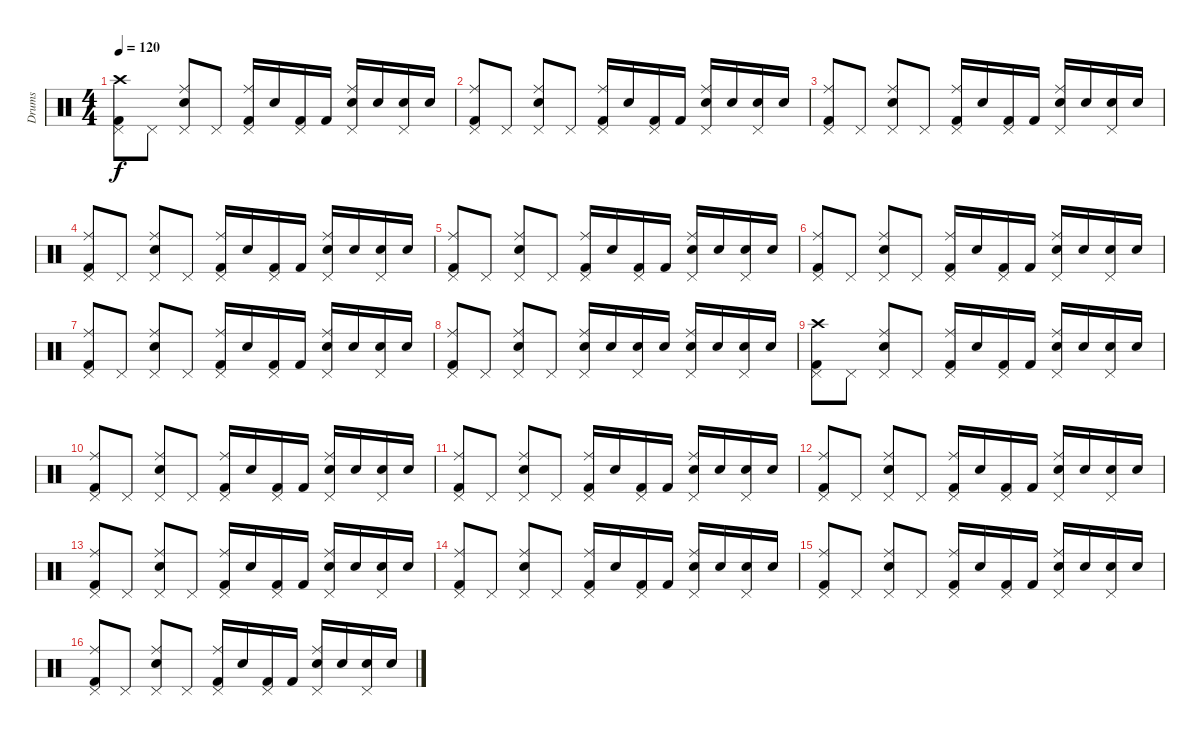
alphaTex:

\track ("Drums" "Drums") {instrument percussion}
\staff {score}
\articulation defaults
\ts (4 4)
\tempo 120
\clef neutral
\ks c
("Crash high (hit)" "Kick (hit) 2" "Pedal Hi-Hat (hit)").8{dy f} "Pedal Hi-Hat (hit)".8 ("Ride (middle)" "Electric Snare (hit)" "Pedal Hi-Hat (hit)").8 "Pedal Hi-Hat (hit)".8 ("Ride (middle)" "Kick (hit) 2" "Pedal Hi-Hat (hit)").16 "Electric Snare (hit)".16 ("Kick (hit) 2" "Pedal Hi-Hat (hit)").16 "Kick (hit) 2".16 ("Ride (middle)" "Electric Snare (hit)" "Pedal Hi-Hat (hit)").16 "Electric Snare (hit)".16 ("Electric Snare (hit)" "Pedal Hi-Hat (hit)").16 "Electric Snare (hit)".16 |
("Ride (middle)" "Kick (hit) 2" "Pedal Hi-Hat (hit)").8 "Pedal Hi-Hat (hit)".8 ("Ride (middle)" "Electric Snare (hit)" "Pedal Hi-Hat (hit)").8 "Pedal Hi-Hat (hit)".8 ("Ride (middle)" "Kick (hit) 2" "Pedal Hi-Hat (hit)").16 "Electric Snare (hit)".16 ("Kick (hit) 2" "Pedal Hi-Hat (hit)").16 "Kick (hit) 2".16 ("Ride (middle)" "Electric Snare (hit)" "Pedal Hi-Hat (hit)").16 "Electric Snare (hit)".16 ("Electric Snare (hit)" "Pedal Hi-Hat (hit)").16 "Electric Snare (hit)".16 |
("Ride (middle)" "Kick (hit) 2" "Pedal Hi-Hat (hit)").8 "Pedal Hi-Hat (hit)".8 ("Ride (middle)" "Electric Snare (hit)" "Pedal Hi-Hat (hit)").8 "Pedal Hi-Hat (hit)".8 ("Ride (middle)" "Kick (hit) 2" "Pedal Hi-Hat (hit)").16 "Electric Snare (hit)".16 ("Kick (hit) 2" "Pedal Hi-Hat (hit)").16 "Kick (hit) 2".16 ("Ride (middle)" "Electric Snare (hit)" "Pedal Hi-Hat (hit)").16 "Electric Snare (hit)".16 ("Electric Snare (hit)" "Pedal Hi-Hat (hit)").16 "Electric Snare (hit)".16 |
("Ride (middle)" "Kick (hit) 2" "Pedal Hi-Hat (hit)").8 "Pedal Hi-Hat (hit)".8 ("Ride (middle)" "Electric Snare (hit)" "Pedal Hi-Hat (hit)").8 "Pedal Hi-Hat (hit)".8 ("Ride (middle)" "Kick (hit) 2" "Pedal Hi-Hat (hit)").16 "Electric Snare (hit)".16 ("Kick (hit) 2" "Pedal Hi-Hat (hit)").16 "Kick (hit) 2".16 ("Ride (middle)" "Electric Snare (hit)" "Pedal Hi-Hat (hit)").16 "Electric Snare (hit)".16 ("Electric Snare (hit)" "Pedal Hi-Hat (hit)").16 "Electric Snare (hit)".16 |
("Ride (middle)" "Kick (hit) 2" "Pedal Hi-Hat (hit)").8 "Pedal Hi-Hat (hit)".8 ("Ride (middle)" "Electric Snare (hit)" "Pedal Hi-Hat (hit)").8 "Pedal Hi-Hat (hit)".8 ("Ride (middle)" "Kick (hit) 2" "Pedal Hi-Hat (hit)").16 "Electric Snare (hit)".16 ("Kick (hit) 2" "Pedal Hi-Hat (hit)").16 "Kick (hit) 2".16 ("Ride (middle)" "Electric Snare (hit)" "Pedal Hi-Hat (hit)").16 "Electric Snare (hit)".16 ("Electric Snare (hit)" "Pedal Hi-Hat (hit)").16 "Electric Snare (hit)".16 |
("Ride (middle)" "Kick (hit) 2" "Pedal Hi-Hat (hit)").8 "Pedal Hi-Hat (hit)".8 ("Ride (middle)" "Electric Snare (hit)" "Pedal Hi-Hat (hit)").8 "Pedal Hi-Hat (hit)".8 ("Ride (middle)" "Kick (hit) 2" "Pedal Hi-Hat (hit)").16 "Electric Snare (hit)".16 ("Kick (hit) 2" "Pedal Hi-Hat (hit)").16 "Kick (hit) 2".16 ("Ride (middle)" "Electric Snare (hit)" "Pedal Hi-Hat (hit)").16 "Electric Snare (hit)".16 ("Electric Snare (hit)" "Pedal Hi-Hat (hit)").16 "Electric Snare (hit)".16 |
("Ride (middle)" "Kick (hit) 2" "Pedal Hi-Hat (hit)").8 "Pedal Hi-Hat (hit)".8 ("Ride (middle)" "Electric Snare (hit)" "Pedal Hi-Hat (hit)").8 "Pedal Hi-Hat (hit)".8 ("Ride (middle)" "Kick (hit) 2" "Pedal Hi-Hat (hit)").16 "Electric Snare (hit)".16 ("Kick (hit) 2" "Pedal Hi-Hat (hit)").16 "Kick (hit) 2".16 ("Ride (middle)" "Electric Snare (hit)" "Pedal Hi-Hat (hit)").16 "Electric Snare (hit)".16 ("Electric Snare (hit)" "Pedal Hi-Hat (hit)").16 "Electric Snare (hit)".16 |
("Ride (middle)" "Kick (hit) 2" "Pedal Hi-Hat (hit)").8 "Pedal Hi-Hat (hit)".8 ("Ride (middle)" "Electric Snare (hit)" "Pedal Hi-Hat (hit)").8 "Pedal Hi-Hat (hit)".8 ("Ride (middle)" "Electric Snare (hit)" "Pedal Hi-Hat (hit)").16 "Electric Snare (hit)".16 ("Electric Snare (hit)" "Pedal Hi-Hat (hit)").16 "Electric Snare (hit)".16 ("Ride (middle)" "Electric Snare (hit)" "Pedal Hi-Hat (hit)").16 "Electric Snare (hit)".16 ("Electric Snare (hit)" "Pedal Hi-Hat (hit)").16 "Electric Snare (hit)".16 |
("Crash high (hit)" "Kick (hit) 2" "Pedal Hi-Hat (hit)").8 "Pedal Hi-Hat (hit)".8 ("Ride (middle)" "Electric Snare (hit)" "Pedal Hi-Hat (hit)").8 "Pedal Hi-Hat (hit)".8 ("Ride (middle)" "Kick (hit) 2" "Pedal Hi-Hat (hit)").16 "Electric Snare (hit)".16 ("Kick (hit) 2" "Pedal Hi-Hat (hit)").16 "Kick (hit) 2".16 ("Ride (middle)" "Electric Snare (hit)" "Pedal Hi-Hat (hit)").16 "Electric Snare (hit)".16 ("Electric Snare (hit)" "Pedal Hi-Hat (hit)").16 "Electric Snare (hit)".16 |
("Ride (middle)" "Kick (hit) 2" "Pedal Hi-Hat (hit)").8 "Pedal Hi-Hat (hit)".8 ("Ride (middle)" "Electric Snare (hit)" "Pedal Hi-Hat (hit)").8 "Pedal Hi-Hat (hit)".8 ("Ride (middle)" "Kick (hit) 2" "Pedal Hi-Hat (hit)").16 "Electric Snare (hit)".16 ("Kick (hit) 2" "Pedal Hi-Hat (hit)").16 "Kick (hit) 2".16 ("Ride (middle)" "Electric Snare (hit)" "Pedal Hi-Hat (hit)").16 "Electric Snare (hit)".16 ("Electric Snare (hit)" "Pedal Hi-Hat (hit)").16 "Electric Snare (hit)".16 |
("Ride (middle)" "Kick (hit) 2" "Pedal Hi-Hat (hit)").8 "Pedal Hi-Hat (hit)".8 ("Ride (middle)" "Electric Snare (hit)" "Pedal Hi-Hat (hit)").8 "Pedal Hi-Hat (hit)".8 ("Ride (middle)" "Kick (hit) 2" "Pedal Hi-Hat (hit)").16 "Electric Snare (hit)".16 ("Kick (hit) 2" "Pedal Hi-Hat (hit)").16 "Kick (hit) 2".16 ("Ride (middle)" "Electric Snare (hit)" "Pedal Hi-Hat (hit)").16 "Electric Snare (hit)".16 ("Electric Snare (hit)" "Pedal Hi-Hat (hit)").16 "Electric Snare (hit)".16 |
("Ride (middle)" "Kick (hit) 2" "Pedal Hi-Hat (hit)").8 "Pedal Hi-Hat (hit)".8 ("Ride (middle)" "Electric Snare (hit)" "Pedal Hi-Hat (hit)").8 "Pedal Hi-Hat (hit)".8 ("Ride (middle)" "Kick (hit) 2" "Pedal Hi-Hat (hit)").16 "Electric Snare (hit)".16 ("Kick (hit) 2" "Pedal Hi-Hat (hit)").16 "Kick (hit) 2".16 ("Ride (middle)" "Electric Snare (hit)" "Pedal Hi-Hat (hit)").16 "Electric Snare (hit)".16 ("Electric Snare (hit)" "Pedal Hi-Hat (hit)").16 "Electric Snare (hit)".16 |
("Ride (middle)" "Kick (hit) 2" "Pedal Hi-Hat (hit)").8 "Pedal Hi-Hat (hit)".8 ("Ride (middle)" "Electric Snare (hit)" "Pedal Hi-Hat (hit)").8 "Pedal Hi-Hat (hit)".8 ("Ride (middle)" "Kick (hit) 2" "Pedal Hi-Hat (hit)").16 "Electric Snare (hit)".16 ("Kick (hit) 2" "Pedal Hi-Hat (hit)").16 "Kick (hit) 2".16 ("Ride (middle)" "Electric Snare (hit)" "Pedal Hi-Hat (hit)").16 "Electric Snare (hit)".16 ("Electric Snare (hit)" "Pedal Hi-Hat (hit)").16 "Electric Snare (hit)".16 |
("Ride (middle)" "Kick (hit) 2" "Pedal Hi-Hat (hit)").8 "Pedal Hi-Hat (hit)".8 ("Ride (middle)" "Electric Snare (hit)" "Pedal Hi-Hat (hit)").8 "Pedal Hi-Hat (hit)".8 ("Ride (middle)" "Kick (hit) 2" "Pedal Hi-Hat (hit)").16 "Electric Snare (hit)".16 ("Kick (hit) 2" "Pedal Hi-Hat (hit)").16 "Kick (hit) 2".16 ("Ride (middle)" "Electric Snare (hit)" "Pedal Hi-Hat (hit)").16 "Electric Snare (hit)".16 ("Electric Snare (hit)" "Pedal Hi-Hat (hit)").16 "Electric Snare (hit)".16 |
("Ride (middle)" "Kick (hit) 2" "Pedal Hi-Hat (hit)").8 "Pedal Hi-Hat (hit)".8 ("Ride (middle)" "Electric Snare (hit)" "Pedal Hi-Hat (hit)").8 "Pedal Hi-Hat (hit)".8 ("Ride (middle)" "Kick (hit) 2" "Pedal Hi-Hat (hit)").16 "Electric Snare (hit)".16 ("Kick (hit) 2" "Pedal Hi-Hat (hit)").16 "Kick (hit) 2".16 ("Ride (middle)" "Electric Snare (hit)" "Pedal Hi-Hat (hit)").16 "Electric Snare (hit)".16 ("Electric Snare (hit)" "Pedal Hi-Hat (hit)").16 "Electric Snare (hit)".16 |
("Ride (middle)" "Kick (hit) 2" "Pedal Hi-Hat (hit)").8 "Pedal Hi-Hat (hit)".8 ("Ride (middle)" "Electric Snare (hit)" "Pedal Hi-Hat (hit)").8 "Pedal Hi-Hat (hit)".8 ("Ride (middle)" "Kick (hit) 2" "Pedal Hi-Hat (hit)").16 "Electric Snare (hit)".16 ("Kick (hit) 2" "Pedal Hi-Hat (hit)").16 "Kick (hit) 2".16 ("Ride (middle)" "Electric Snare (hit)" "Pedal Hi-Hat (hit)").16 "Electric Snare (hit)".16 ("Electric Snare (hit)" "Pedal Hi-Hat (hit)").16 "Electric Snare (hit)".16
